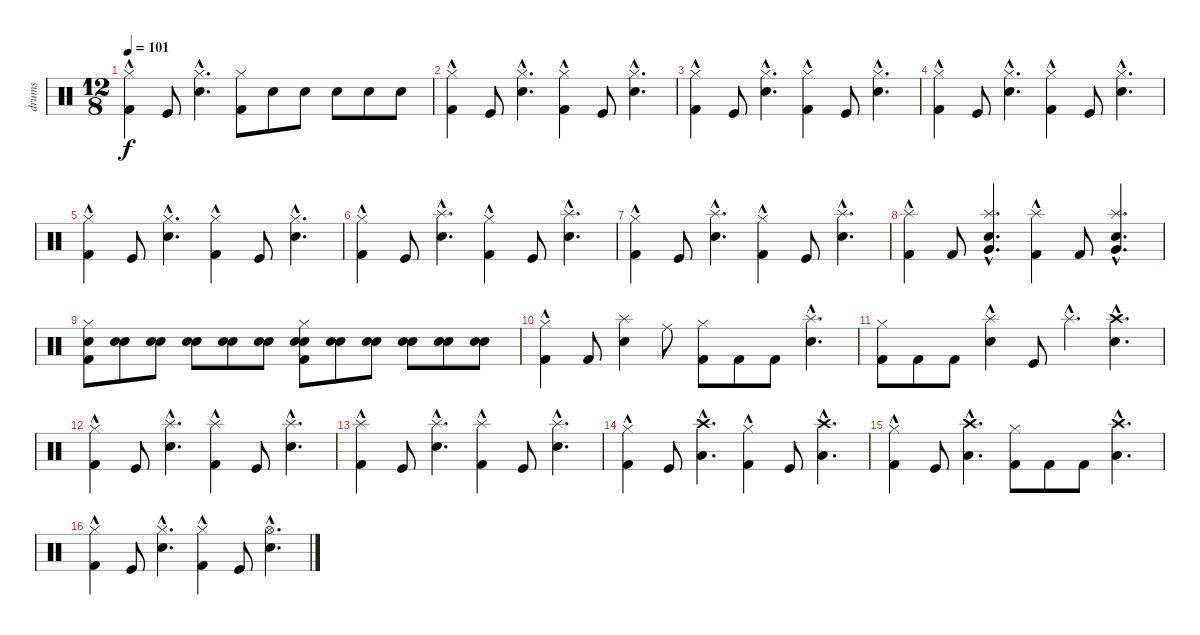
\track ("drums" "drums") {instrument percussion}
\staff {score}
\articulation defaults
\ts (12 8)
\tempo 101
\clef neutral
\ks c
("Hi-Hat (closed)"{hac} "Kick (hit) 2").4{dy f} "Kick (hit)".8 ("Hi-Hat (closed)"{hac} "Snare (hit) 2"{hac}).4{d} ("Hi-Hat (closed)" "Kick (hit) 2").8 "Snare (hit) 2".8 "Snare (hit) 2".8 "Snare (hit) 2".8 "Snare (hit) 2".8 "Snare (hit) 2".8 |
("Hi-Hat (closed)"{hac} "Kick (hit) 2").4 "Kick (hit)".8 ("Hi-Hat (closed)"{hac} "Snare (hit) 2"{hac}).4{d} ("Hi-Hat (closed)"{hac} "Kick (hit) 2").4 "Kick (hit)".8 ("Hi-Hat (closed)"{hac} "Snare (hit) 2"{hac}).4{d} |
("Hi-Hat (closed)"{hac} "Kick (hit) 2").4 "Kick (hit)".8 ("Hi-Hat (closed)"{hac} "Snare (hit) 2"{hac}).4{d} ("Hi-Hat (closed)"{hac} "Kick (hit) 2").4 "Kick (hit)".8 ("Hi-Hat (closed)"{hac} "Snare (hit) 2"{hac}).4{d} |
("Hi-Hat (closed)"{hac} "Kick (hit) 2").4 "Kick (hit)".8 ("Hi-Hat (closed)"{hac} "Snare (hit) 2"{hac}).4{d} ("Hi-Hat (closed)"{hac} "Kick (hit) 2").4 "Kick (hit)".8 ("Hi-Hat (closed)"{hac} "Snare (hit) 2"{hac}).4{d} |
("Hi-Hat (closed)"{hac} "Kick (hit) 2").4 "Kick (hit)".8 ("Hi-Hat (closed)"{hac} "Snare (hit) 2"{hac}).4{d} ("Hi-Hat (closed)"{hac} "Kick (hit) 2").4 "Kick (hit)".8 ("Hi-Hat (closed)"{hac} "Snare (hit) 2"{hac}).4{d} |
("Kick (hit) 2" "Hi-Hat (closed)"{hac}).4 "Kick (hit)".8 ("Snare (hit) 2"{hac} "Splash (hit)"{hac}).4{d} ("Kick (hit) 2" "Hi-Hat (closed)"{hac}).4 "Kick (hit)".8 ("Splash (hit)"{hac} "Snare (hit) 2"{hac}).4{d} |
("Kick (hit) 2" "Hi-Hat (closed)"{hac}).4 "Kick (hit)".8 ("Snare (hit) 2"{hac} "Splash (hit)"{hac}).4{d} ("Kick (hit) 2" "Hi-Hat (closed)"{hac}).4 "Kick (hit)".8 ("Splash (hit)"{hac} "Snare (hit) 2"{hac}).4{d} |
("Kick (hit) 2" "Splash (hit)"{hac}).4 "Kick (hit) 2".8 ("Very Low Tom (hit)"{hac} "Snare (hit) 2"{hac} "Splash (hit)"{hac}).4{d} ("Kick (hit) 2" "Splash (hit)"{hac}).4 "Kick (hit) 2".8 ("Splash (hit)"{hac} "Snare (hit) 2"{hac} "Very Low Tom (hit)"{hac}).4{d} |
("Snare (hit) 2" "Hi-Hat (closed)" "Kick (hit) 2").8 ("Electric Snare (hit)" "Snare (hit) 2").8 ("Electric Snare (hit)" "Snare (hit) 2").8 ("Electric Snare (hit)" "Snare (hit) 2").8 ("Electric Snare (hit)" "Snare (hit) 2").8 ("Electric Snare (hit)" "Snare (hit) 2").8 ("Electric Snare (hit)" "Snare (hit) 2" "Hi-Hat (closed)" "Kick (hit) 2").8 ("Electric Snare (hit)" "Snare (hit) 2").8 ("Electric Snare (hit)" "Snare (hit) 2").8 ("Electric Snare (hit)" "Snare (hit) 2").8 ("Electric Snare (hit)" "Snare (hit) 2").8 ("Electric Snare (hit)" "Snare (hit) 2").8 |
("Hi-Hat (closed)"{hac} "Kick (hit) 2").4 "Kick (hit) 2".8 ("Splash (hit)" "Snare (hit) 2").4 "Ride (middle)".8 ("Hi-Hat (closed)" "Kick (hit) 2").8 "Kick (hit) 2".8 "Kick (hit) 2".8 ("Splash (hit)"{hac} "Electric Snare (hit)"{hac}).4{d} |
("Hi-Hat (closed)" "Kick (hit) 2").8 "Kick (hit) 2".8 "Kick (hit) 2".8 ("Splash (hit)"{hac} "Snare (hit) 2").4 "Kick (hit)".8 "Splash (hit)"{hac}.4{d} ("Crash high (hit)"{hac} "Snare (hit) 2"{hac}).4{d} |
("Hi-Hat (closed)"{hac} "Kick (hit) 2").4 "Kick (hit)".8 ("Snare (hit) 2"{hac} "Splash (hit)"{hac}).4{d} ("Kick (hit) 2" "Splash (hit)"{hac}).4 "Kick (hit)".8 ("Snare (hit) 2"{hac} "Splash (hit)"{hac}).4{d} |
("Kick (hit) 2" "Splash (hit)"{hac}).4 "Kick (hit)".8 ("Snare (hit) 2"{hac} "Splash (hit)"{hac}).4{d} ("Kick (hit) 2" "Splash (hit)"{hac}).4 "Kick (hit)".8 ("Snare (hit) 2"{hac} "Splash (hit)"{hac}).4{d} |
("Kick (hit) 2" "Hi-Hat (closed)"{hac}).4 "Kick (hit)".8 ("Crash high (hit)"{hac} "Low Tom (hit)"{hac}).4{d} ("Hi-Hat (closed)"{hac} "Kick (hit) 2").4 "Kick (hit)".8 ("Crash high (hit)"{hac} "Low Tom (hit)"{hac}).4{d} |
("Hi-Hat (closed)"{hac} "Kick (hit) 2").4 "Kick (hit)".8 ("Crash high (hit)"{hac} "Low Tom (hit)"{hac}).4{d} ("Hi-Hat (closed)" "Kick (hit) 2").8 "Kick (hit) 2".8 "Kick (hit) 2".8 ("Crash high (hit)"{hac} "Low Tom (hit)"{hac}).4{d} |
("Hi-Hat (closed)"{hac} "Kick (hit) 2").4 "Kick (hit)".8 ("Hi-Hat (closed)"{hac} "Snare (hit) 2"{hac}).4{d} ("Hi-Hat (closed)"{hac} "Kick (hit) 2").4 "Kick (hit)".8 ("Hi-Hat (open)"{hac} "Snare (hit) 2"{hac}).4{d}
